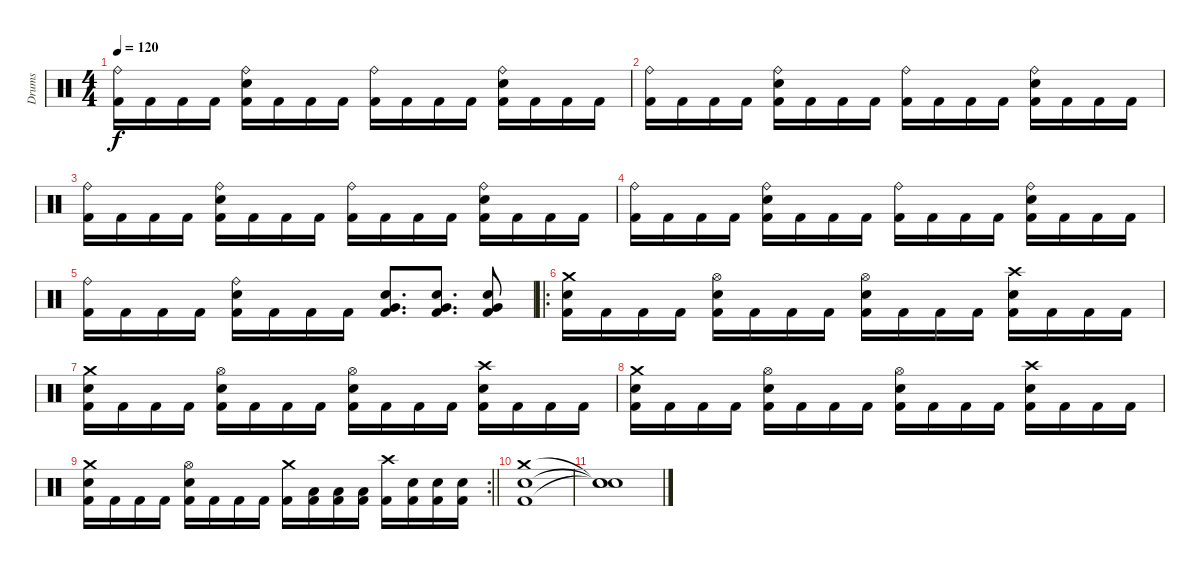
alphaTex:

\track ("Drums" "Drums") {instrument percussion}
\staff {score}
\articulation defaults
\ts (4 4)
\tempo 120
\clef neutral
\ks c
("Ride (bell)" "Kick (hit) 2").16{dy f} "Kick (hit) 2".16 "Kick (hit) 2".16 "Kick (hit) 2".16 ("Ride (bell)" "Electric Snare (hit)" "Kick (hit) 2").16 "Kick (hit) 2".16 "Kick (hit) 2".16 "Kick (hit) 2".16 ("Ride (bell)" "Kick (hit) 2").16 "Kick (hit) 2".16 "Kick (hit) 2".16 "Kick (hit) 2".16 ("Ride (bell)" "Electric Snare (hit)" "Kick (hit) 2").16 "Kick (hit) 2".16 "Kick (hit) 2".16 "Kick (hit) 2".16 |
("Ride (bell)" "Kick (hit) 2").16 "Kick (hit) 2".16 "Kick (hit) 2".16 "Kick (hit) 2".16 ("Ride (bell)" "Electric Snare (hit)" "Kick (hit) 2").16 "Kick (hit) 2".16 "Kick (hit) 2".16 "Kick (hit) 2".16 ("Ride (bell)" "Kick (hit) 2").16 "Kick (hit) 2".16 "Kick (hit) 2".16 "Kick (hit) 2".16 ("Ride (bell)" "Electric Snare (hit)" "Kick (hit) 2").16 "Kick (hit) 2".16 "Kick (hit) 2".16 "Kick (hit) 2".16 |
("Ride (bell)" "Kick (hit) 2").16 "Kick (hit) 2".16 "Kick (hit) 2".16 "Kick (hit) 2".16 ("Ride (bell)" "Electric Snare (hit)" "Kick (hit) 2").16 "Kick (hit) 2".16 "Kick (hit) 2".16 "Kick (hit) 2".16 ("Ride (bell)" "Kick (hit) 2").16 "Kick (hit) 2".16 "Kick (hit) 2".16 "Kick (hit) 2".16 ("Ride (bell)" "Electric Snare (hit)" "Kick (hit) 2").16 "Kick (hit) 2".16 "Kick (hit) 2".16 "Kick (hit) 2".16 |
("Ride (bell)" "Kick (hit) 2").16 "Kick (hit) 2".16 "Kick (hit) 2".16 "Kick (hit) 2".16 ("Ride (bell)" "Electric Snare (hit)" "Kick (hit) 2").16 "Kick (hit) 2".16 "Kick (hit) 2".16 "Kick (hit) 2".16 ("Ride (bell)" "Kick (hit) 2").16 "Kick (hit) 2".16 "Kick (hit) 2".16 "Kick (hit) 2".16 ("Ride (bell)" "Electric Snare (hit)" "Kick (hit) 2").16 "Kick (hit) 2".16 "Kick (hit) 2".16 "Kick (hit) 2".16 |
("Ride (bell)" "Kick (hit) 2").16 "Kick (hit) 2".16 "Kick (hit) 2".16 "Kick (hit) 2".16 ("Ride (bell)" "Electric Snare (hit)" "Kick (hit) 2").16 "Kick (hit) 2".16 "Kick (hit) 2".16 "Kick (hit) 2".16 ("Electric Snare (hit)" "Very Low Tom (hit)" "Kick (hit) 2").8{d} ("Electric Snare (hit)" "Very Low Tom (hit)" "Kick (hit) 2").8{d} ("Electric Snare (hit)" "Very Low Tom (hit)" "Kick (hit) 2").8 |
\ro
("Crash medium (hit)" "Electric Snare (hit)" "Kick (hit) 2").16 "Kick (hit) 2".16 "Kick (hit) 2".16 "Kick (hit) 2".16 ("Hi-Hat (open)" "Electric Snare (hit)" "Kick (hit) 2").16 "Kick (hit) 2".16 "Kick (hit) 2".16 "Kick (hit) 2".16 ("Hi-Hat (open)" "Electric Snare (hit)" "Kick (hit) 2").16 "Kick (hit) 2".16 "Kick (hit) 2".16 "Kick (hit) 2".16 ("Crash high (hit)" "Electric Snare (hit)" "Kick (hit) 2").16 "Kick (hit) 2".16 "Kick (hit) 2".16 "Kick (hit) 2".16 |
("Crash medium (hit)" "Electric Snare (hit)" "Kick (hit) 2").16 "Kick (hit) 2".16 "Kick (hit) 2".16 "Kick (hit) 2".16 ("Hi-Hat (open)" "Electric Snare (hit)" "Kick (hit) 2").16 "Kick (hit) 2".16 "Kick (hit) 2".16 "Kick (hit) 2".16 ("Hi-Hat (open)" "Electric Snare (hit)" "Kick (hit) 2").16 "Kick (hit) 2".16 "Kick (hit) 2".16 "Kick (hit) 2".16 ("Crash high (hit)" "Electric Snare (hit)" "Kick (hit) 2").16 "Kick (hit) 2".16 "Kick (hit) 2".16 "Kick (hit) 2".16 |
("Crash medium (hit)" "Electric Snare (hit)" "Kick (hit) 2").16 "Kick (hit) 2".16 "Kick (hit) 2".16 "Kick (hit) 2".16 ("Hi-Hat (open)" "Electric Snare (hit)" "Kick (hit) 2").16 "Kick (hit) 2".16 "Kick (hit) 2".16 "Kick (hit) 2".16 ("Hi-Hat (open)" "Electric Snare (hit)" "Kick (hit) 2").16 "Kick (hit) 2".16 "Kick (hit) 2".16 "Kick (hit) 2".16 ("Crash high (hit)" "Electric Snare (hit)" "Kick (hit) 2").16 "Kick (hit) 2".16 "Kick (hit) 2".16 "Kick (hit) 2".16 |
\rc 2
\barLineRight lightlight
("Crash medium (hit)" "Electric Snare (hit)" "Kick (hit) 2").16 "Kick (hit) 2".16 "Kick (hit) 2".16 "Kick (hit) 2".16 ("Hi-Hat (open)" "Electric Snare (hit)" "Kick (hit) 2").16 "Kick (hit) 2".16 "Kick (hit) 2".16 "Kick (hit) 2".16 ("Crash medium (hit)" "Kick (hit) 2").16 ("Low Tom (hit)" "Kick (hit) 2").16 ("Low Tom (hit)" "Kick (hit) 2").16 ("Low Tom (hit)" "Kick (hit) 2").16 ("Crash high (hit)" "Kick (hit) 2").16 ("Electric Snare (hit)" "Kick (hit) 2").16 ("Electric Snare (hit)" "Kick (hit) 2").16 ("Electric Snare (hit)" "Kick (hit) 2").16 |
("Crash medium (hit)" "Electric Snare (hit)" "Kick (hit) 2").1 |
("Snare (hit)"{t} "Snare (hit)"{t} "Snare (hit)"{t}).1
